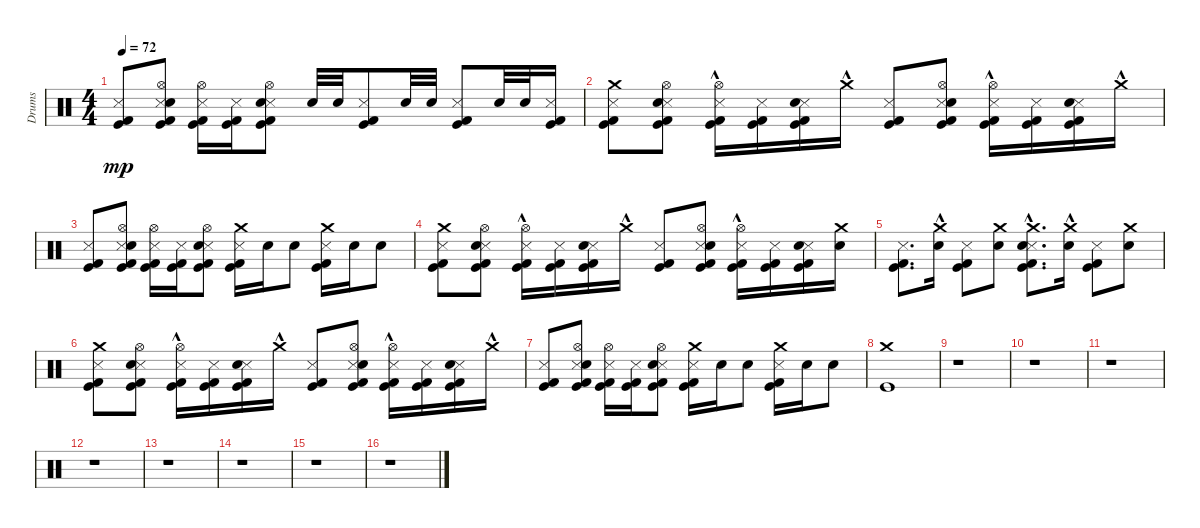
\track ("Drums" "Drums") {instrument percussion}
\staff {score}
\articulation defaults
\ts (4 4)
\tempo 72
\clef neutral
\ks c
("Metronome (hit)" "Kick (hit)" "Kick (hit) 2").8{dy mp} ("Hi-Hat (open)" "Metronome (hit)" "Kick (hit)" "Kick (hit) 2" "Snare (hit) 2").8 ("Hi-Hat (open)" "Metronome (hit)" "Kick (hit)" "Kick (hit) 2").16 ("Metronome (hit)" "Kick (hit)" "Kick (hit) 2").16 ("Hi-Hat (open)" "Metronome (hit)" "Kick (hit)" "Kick (hit) 2" "Snare (hit) 2").8 "Snare (hit) 2".32 "Snare (hit) 2".32 ("Metronome (hit)" "Kick (hit)" "Kick (hit) 2").8 "Snare (hit) 2".32 "Snare (hit) 2".32 ("Metronome (hit)" "Kick (hit)" "Kick (hit) 2").8 "Snare (hit) 2".32 "Snare (hit) 2".32 ("Metronome (hit)" "Kick (hit)" "Kick (hit) 2").16 |
("Crash medium (hit)" "Metronome (hit)" "Kick (hit)" "Kick (hit) 2").8 ("Hi-Hat (open)" "Metronome (hit)" "Kick (hit)" "Kick (hit) 2" "Snare (hit) 2").8 ("Hi-Hat (open)"{hac} "Metronome (hit)" "Kick (hit)" "Kick (hit) 2").16 ("Metronome (hit)" "Kick (hit)" "Kick (hit) 2").16 ("Metronome (hit)" "Kick (hit)" "Kick (hit) 2" "Snare (hit) 2").16 "Crash medium (hit)"{hac}.16 ("Metronome (hit)" "Kick (hit)" "Kick (hit) 2").8 ("Hi-Hat (open)" "Metronome (hit)" "Kick (hit)" "Kick (hit) 2" "Snare (hit) 2").8 ("Hi-Hat (open)"{hac} "Metronome (hit)" "Kick (hit)" "Kick (hit) 2").16 ("Metronome (hit)" "Kick (hit)" "Kick (hit) 2").16 ("Metronome (hit)" "Kick (hit)" "Kick (hit) 2" "Snare (hit) 2").16 "Crash medium (hit)"{hac}.16 |
("Metronome (hit)" "Kick (hit)" "Kick (hit) 2").8 ("Hi-Hat (open)" "Metronome (hit)" "Kick (hit)" "Kick (hit) 2" "Snare (hit) 2").8 ("Hi-Hat (open)" "Metronome (hit)" "Kick (hit)" "Kick (hit) 2").16 ("Metronome (hit)" "Kick (hit)" "Kick (hit) 2").16 ("Hi-Hat (open)" "Metronome (hit)" "Kick (hit)" "Kick (hit) 2" "Snare (hit) 2").8 ("Crash medium (hit)" "Metronome (hit)" "Kick (hit)" "Kick (hit) 2").16 "Snare (hit) 2".16 "Snare (hit) 2".8 ("Crash medium (hit)" "Metronome (hit)" "Kick (hit)" "Kick (hit) 2").16 "Snare (hit) 2".16 "Snare (hit) 2".8 |
("Crash medium (hit)" "Metronome (hit)" "Kick (hit)" "Kick (hit) 2").8 ("Hi-Hat (open)" "Metronome (hit)" "Kick (hit)" "Kick (hit) 2" "Snare (hit) 2").8 ("Hi-Hat (open)"{hac} "Metronome (hit)" "Kick (hit)" "Kick (hit) 2").16 ("Metronome (hit)" "Kick (hit)" "Kick (hit) 2").16 ("Metronome (hit)" "Kick (hit)" "Kick (hit) 2" "Snare (hit) 2").16 "Crash medium (hit)"{hac}.16 ("Metronome (hit)" "Kick (hit)" "Kick (hit) 2").8 ("Hi-Hat (open)" "Metronome (hit)" "Kick (hit)" "Kick (hit) 2" "Snare (hit) 2").8 ("Hi-Hat (open)"{hac} "Metronome (hit)" "Kick (hit)" "Kick (hit) 2").16 ("Metronome (hit)" "Kick (hit)" "Kick (hit) 2").16 ("Metronome (hit)" "Kick (hit)" "Kick (hit) 2" "Snare (hit) 2").16 ("Snare (hit) 2" "Crash medium (hit)").16 |
("Metronome (hit)" "Kick (hit)" "Kick (hit) 2").8{d} ("Snare (hit) 2"{hac} "Crash medium (hit)"{hac}).16 ("Metronome (hit)" "Kick (hit)" "Kick (hit) 2").8 ("Snare (hit) 2" "Crash medium (hit)").8 ("Metronome (hit)" "Kick (hit)" "Kick (hit) 2" "Snare (hit) 2"{hac} "Crash medium (hit)"{hac}).8{d} ("Snare (hit) 2"{hac} "Crash medium (hit)"{hac}).16 ("Metronome (hit)" "Kick (hit)" "Kick (hit) 2").8 ("Snare (hit) 2" "Crash medium (hit)").8 |
("Crash medium (hit)" "Metronome (hit)" "Kick (hit)" "Kick (hit) 2").8 ("Hi-Hat (open)" "Metronome (hit)" "Kick (hit)" "Kick (hit) 2" "Snare (hit) 2").8 ("Hi-Hat (open)"{hac} "Metronome (hit)" "Kick (hit)" "Kick (hit) 2").16 ("Metronome (hit)" "Kick (hit)" "Kick (hit) 2").16 ("Metronome (hit)" "Kick (hit)" "Kick (hit) 2" "Snare (hit) 2").16 "Crash medium (hit)"{hac}.16 ("Metronome (hit)" "Kick (hit)" "Kick (hit) 2").8 ("Hi-Hat (open)" "Metronome (hit)" "Kick (hit)" "Kick (hit) 2" "Snare (hit) 2").8 ("Hi-Hat (open)"{hac} "Metronome (hit)" "Kick (hit)" "Kick (hit) 2").16 ("Metronome (hit)" "Kick (hit)" "Kick (hit) 2").16 ("Metronome (hit)" "Kick (hit)" "Kick (hit) 2" "Snare (hit) 2").16 "Crash medium (hit)"{hac}.16 |
("Metronome (hit)" "Kick (hit)" "Kick (hit) 2").8 ("Hi-Hat (open)" "Metronome (hit)" "Kick (hit)" "Kick (hit) 2" "Snare (hit) 2").8 ("Hi-Hat (open)" "Metronome (hit)" "Kick (hit)" "Kick (hit) 2").16 ("Metronome (hit)" "Kick (hit)" "Kick (hit) 2").16 ("Hi-Hat (open)" "Metronome (hit)" "Kick (hit)" "Kick (hit) 2" "Snare (hit) 2").8 ("Crash medium (hit)" "Metronome (hit)" "Kick (hit)" "Kick (hit) 2").16 "Snare (hit) 2".16 "Snare (hit) 2".8 ("Crash medium (hit)" "Metronome (hit)" "Kick (hit)" "Kick (hit) 2").16 "Snare (hit) 2".16 "Snare (hit) 2".8 |
("Kick (hit)" "Crash medium (hit)").1 |
r.1 |
r.1 |
r.1 |
r.1 |
r.1 |
r.1 |
r.1 |
r.1
